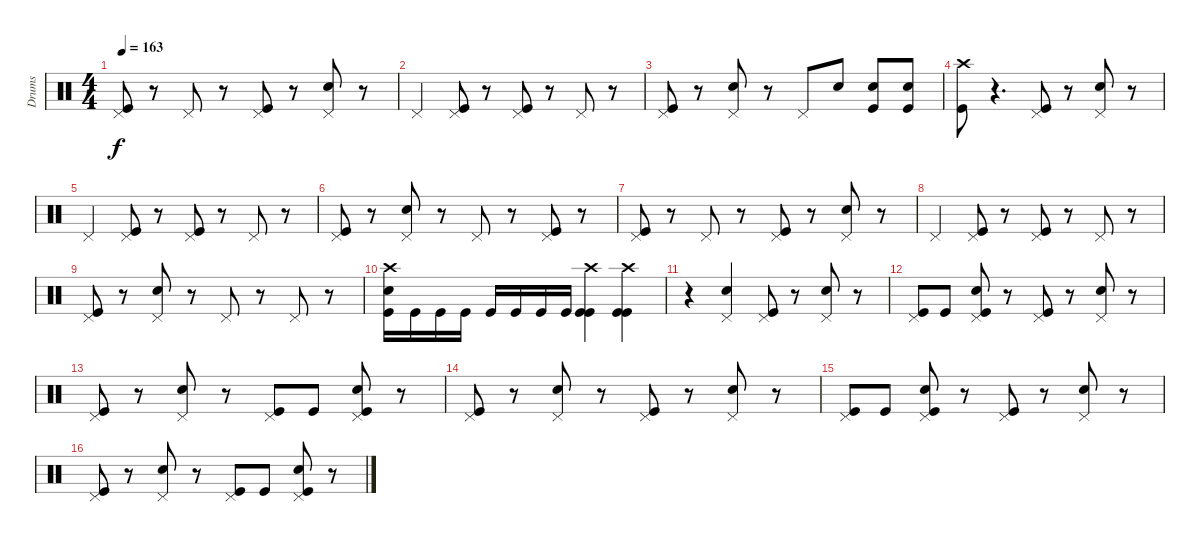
\track ("Drums" "Drums") {instrument percussion}
\staff {score}
\articulation defaults
\ts (4 4)
\tempo 163
\clef neutral
\ks c
("Pedal Hi-Hat (hit)" "Kick (hit)").8{dy f} r.8 "Pedal Hi-Hat (hit)".8 r.8 ("Pedal Hi-Hat (hit)" "Kick (hit)").8 r.8 ("Pedal Hi-Hat (hit)" "Snare (hit) 2").8 r.8 |
"Pedal Hi-Hat (hit)".4 ("Pedal Hi-Hat (hit)" "Kick (hit)").8 r.8 ("Pedal Hi-Hat (hit)" "Kick (hit)").8 r.8 "Pedal Hi-Hat (hit)".8 r.8 |
("Pedal Hi-Hat (hit)" "Kick (hit)").8 r.8 ("Pedal Hi-Hat (hit)" "Snare (hit) 2").8 r.8 "Pedal Hi-Hat (hit)".8 "Snare (hit) 2".8 ("Snare (hit) 2" "Kick (hit)").8 ("Snare (hit) 2" "Kick (hit)").8 |
("Crash high (hit)" "Kick (hit)").8 r.4{d} ("Pedal Hi-Hat (hit)" "Kick (hit)").8 r.8 ("Pedal Hi-Hat (hit)" "Snare (hit) 2").8 r.8 |
"Pedal Hi-Hat (hit)".4 ("Pedal Hi-Hat (hit)" "Kick (hit)").8 r.8 ("Pedal Hi-Hat (hit)" "Kick (hit)").8 r.8 "Pedal Hi-Hat (hit)".8 r.8 |
("Pedal Hi-Hat (hit)" "Kick (hit)").8 r.8 ("Pedal Hi-Hat (hit)" "Snare (hit) 2").8 r.8 "Pedal Hi-Hat (hit)".8 r.8 ("Pedal Hi-Hat (hit)" "Kick (hit)").8 r.8 |
("Pedal Hi-Hat (hit)" "Kick (hit)").8 r.8 "Pedal Hi-Hat (hit)".8 r.8 ("Pedal Hi-Hat (hit)" "Kick (hit)").8 r.8 ("Pedal Hi-Hat (hit)" "Snare (hit) 2").8 r.8 |
"Pedal Hi-Hat (hit)".4 ("Pedal Hi-Hat (hit)" "Kick (hit)").8 r.8 ("Pedal Hi-Hat (hit)" "Kick (hit)").8 r.8 "Pedal Hi-Hat (hit)".8 r.8 |
("Pedal Hi-Hat (hit)" "Kick (hit)").8 r.8 ("Pedal Hi-Hat (hit)" "Snare (hit) 2").8 r.8 "Pedal Hi-Hat (hit)".8 r.8 "Pedal Hi-Hat (hit)".8 r.8 |
("Crash high (hit)" "Snare (hit) 2" "Kick (hit)").16 "Kick (hit)".16 "Kick (hit)".16 "Kick (hit)".16 "Kick (hit)".16 "Kick (hit)".16 "Kick (hit)".16 "Kick (hit)".16 ("Crash high (hit)" "Kick (hit)" "Kick (hit)").4 ("Crash high (hit)" "Kick (hit)" "Kick (hit)").4 |
r.4 ("Pedal Hi-Hat (hit)" "Snare (hit) 2").4 ("Pedal Hi-Hat (hit)" "Kick (hit)").8 r.8 ("Pedal Hi-Hat (hit)" "Snare (hit) 2").8 r.8 |
("Pedal Hi-Hat (hit)" "Kick (hit)").8 "Kick (hit)".8 ("Pedal Hi-Hat (hit)" "Snare (hit) 2" "Kick (hit)").8 r.8 ("Pedal Hi-Hat (hit)" "Kick (hit)").8 r.8 ("Pedal Hi-Hat (hit)" "Snare (hit) 2").8 r.8 |
("Pedal Hi-Hat (hit)" "Kick (hit)").8 r.8 ("Pedal Hi-Hat (hit)" "Snare (hit) 2").8 r.8 ("Pedal Hi-Hat (hit)" "Kick (hit)").8 "Kick (hit)".8 ("Pedal Hi-Hat (hit)" "Snare (hit) 2" "Kick (hit)").8 r.8 |
("Pedal Hi-Hat (hit)" "Kick (hit)").8 r.8 ("Pedal Hi-Hat (hit)" "Snare (hit) 2").8 r.8 ("Pedal Hi-Hat (hit)" "Kick (hit)").8 r.8 ("Pedal Hi-Hat (hit)" "Snare (hit) 2").8 r.8 |
("Pedal Hi-Hat (hit)" "Kick (hit)").8 "Kick (hit)".8 ("Pedal Hi-Hat (hit)" "Snare (hit) 2" "Kick (hit)").8 r.8 ("Pedal Hi-Hat (hit)" "Kick (hit)").8 r.8 ("Pedal Hi-Hat (hit)" "Snare (hit) 2").8 r.8 |
("Pedal Hi-Hat (hit)" "Kick (hit)").8 r.8 ("Pedal Hi-Hat (hit)" "Snare (hit) 2").8 r.8 ("Pedal Hi-Hat (hit)" "Kick (hit)").8 "Kick (hit)".8 ("Pedal Hi-Hat (hit)" "Snare (hit) 2" "Kick (hit)").8 r.8
